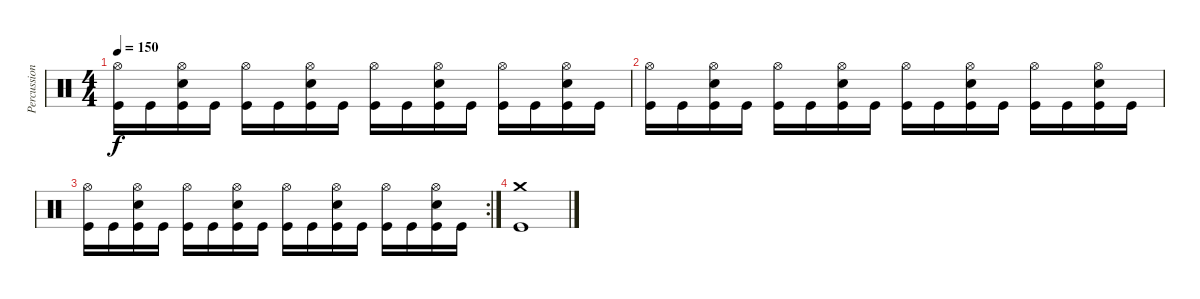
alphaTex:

\track ("Percussion" "Percussion") {instrument percussion}
\staff {score}
\articulation defaults
\ts (4 4)
\tempo 150
\clef neutral
\ks c
("Hi-Hat (open)" "Kick (hit)").16{dy f} "Kick (hit)".16 ("Hi-Hat (open)" "Snare (hit) 2" "Kick (hit)").16 "Kick (hit)".16 ("Hi-Hat (open)" "Kick (hit)").16 "Kick (hit)".16 ("Hi-Hat (open)" "Snare (hit) 2" "Kick (hit)").16 "Kick (hit)".16 ("Hi-Hat (open)" "Kick (hit)").16 "Kick (hit)".16 ("Hi-Hat (open)" "Snare (hit) 2" "Kick (hit)").16 "Kick (hit)".16 ("Hi-Hat (open)" "Kick (hit)").16 "Kick (hit)".16 ("Hi-Hat (open)" "Snare (hit) 2" "Kick (hit)").16 "Kick (hit)".16 |
("Hi-Hat (open)" "Kick (hit)").16 "Kick (hit)".16 ("Hi-Hat (open)" "Snare (hit) 2" "Kick (hit)").16 "Kick (hit)".16 ("Hi-Hat (open)" "Kick (hit)").16 "Kick (hit)".16 ("Hi-Hat (open)" "Snare (hit) 2" "Kick (hit)").16 "Kick (hit)".16 ("Hi-Hat (open)" "Kick (hit)").16 "Kick (hit)".16 ("Hi-Hat (open)" "Snare (hit) 2" "Kick (hit)").16 "Kick (hit)".16 ("Hi-Hat (open)" "Kick (hit)").16 "Kick (hit)".16 ("Hi-Hat (open)" "Snare (hit) 2" "Kick (hit)").16 "Kick (hit)".16 |
\rc 2
("Hi-Hat (open)" "Kick (hit)").16 "Kick (hit)".16 ("Hi-Hat (open)" "Snare (hit) 2" "Kick (hit)").16 "Kick (hit)".16 ("Hi-Hat (open)" "Kick (hit)").16 "Kick (hit)".16 ("Hi-Hat (open)" "Snare (hit) 2" "Kick (hit)").16 "Kick (hit)".16 ("Hi-Hat (open)" "Kick (hit)").16 "Kick (hit)".16 ("Hi-Hat (open)" "Snare (hit) 2" "Kick (hit)").16 "Kick (hit)".16 ("Hi-Hat (open)" "Kick (hit)").16 "Kick (hit)".16 ("Hi-Hat (open)" "Snare (hit) 2" "Kick (hit)").16 "Kick (hit)".16 |
("Crash medium (hit)" "Kick (hit)").1
